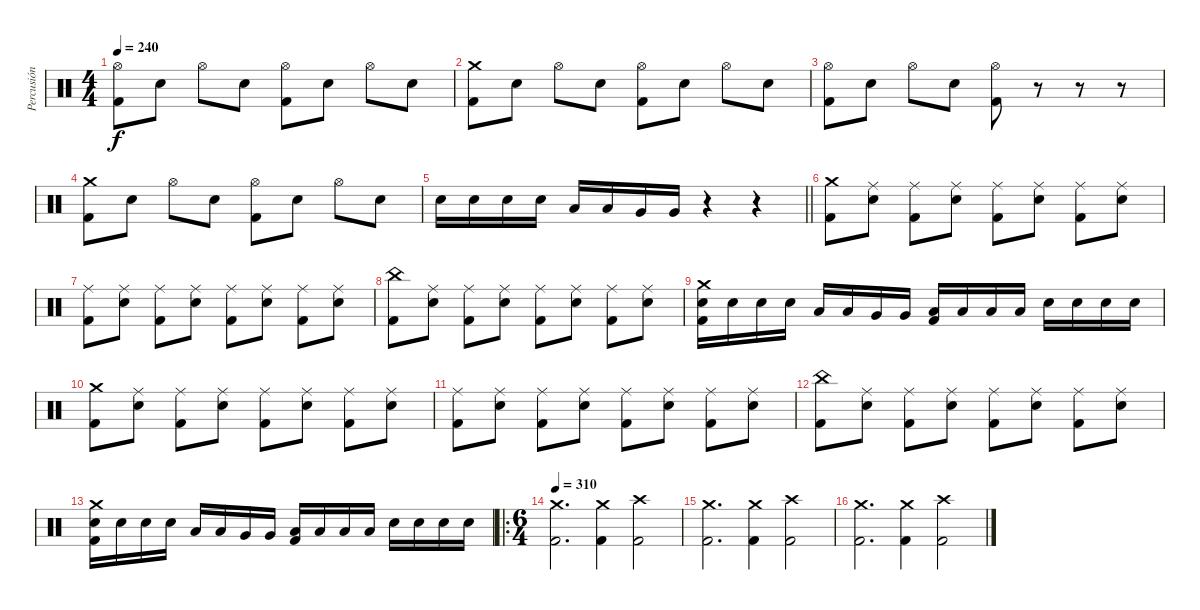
\track ("Percusión" "Percusión") {instrument percussion}
\staff {score}
\articulation defaults
\ts (4 4)
\tempo 240
\clef neutral
\ks c
("Hi-Hat (open)" "Kick (hit) 2").8{dy f} "Electric Snare (hit)".8 "Hi-Hat (open)".8 "Electric Snare (hit)".8 ("Hi-Hat (open)" "Kick (hit) 2").8 "Electric Snare (hit)".8 "Hi-Hat (open)".8 "Electric Snare (hit)".8 |
("Crash medium (hit)" "Kick (hit) 2").8 "Electric Snare (hit)".8 "Hi-Hat (open)".8 "Electric Snare (hit)".8 ("Hi-Hat (open)" "Kick (hit) 2").8 "Electric Snare (hit)".8 "Hi-Hat (open)".8 "Electric Snare (hit)".8 |
("Hi-Hat (open)" "Kick (hit) 2").8 "Electric Snare (hit)".8 "Hi-Hat (open)".8 "Electric Snare (hit)".8 ("Hi-Hat (open)" "Kick (hit) 2").8 r.8 r.8 r.8 |
("Crash medium (hit)" "Kick (hit) 2").8 "Electric Snare (hit)".8 "Hi-Hat (open)".8 "Electric Snare (hit)".8 ("Hi-Hat (open)" "Kick (hit) 2").8 "Electric Snare (hit)".8 "Hi-Hat (open)".8 "Electric Snare (hit)".8 |
\barLineRight lightlight "Electric Snare (hit)".16 "Electric Snare (hit)".16 "Electric Snare (hit)".16 "Electric Snare (hit)".16 "Low Tom (hit)".16 "Low Tom (hit)".16 "Very Low Tom (hit)".16 "Very Low Tom (hit)".16
r.4 r.4 |
("Crash medium (hit)" "Kick (hit) 2").8 ("Ride (middle)" "Electric Snare (hit)").8 ("Ride (middle)" "Kick (hit) 2").8 ("Ride (middle)" "Electric Snare (hit)").8 ("Ride (middle)" "Kick (hit) 2").8 ("Ride (middle)" "Electric Snare (hit)").8 ("Ride (middle)" "Kick (hit) 2").8 ("Ride (middle)" "Electric Snare (hit)").8 |
("Ride (middle)" "Kick (hit) 2").8 ("Ride (middle)" "Electric Snare (hit)").8 ("Ride (middle)" "Kick (hit) 2").8 ("Ride (middle)" "Electric Snare (hit)").8 ("Ride (middle)" "Kick (hit) 2").8 ("Ride (middle)" "Electric Snare (hit)").8 ("Ride (middle)" "Kick (hit) 2").8 ("Ride (middle)" "Electric Snare (hit)").8 |
("China (hit)" "Kick (hit) 2").8 ("Ride (middle)" "Electric Snare (hit)").8 ("Ride (middle)" "Kick (hit) 2").8 ("Ride (middle)" "Electric Snare (hit)").8 ("Ride (middle)" "Kick (hit) 2").8 ("Ride (middle)" "Electric Snare (hit)").8 ("Ride (middle)" "Kick (hit) 2").8 ("Ride (middle)" "Electric Snare (hit)").8 |
("Crash medium (hit)" "Electric Snare (hit)" "Kick (hit) 2").16 "Electric Snare (hit)".16 "Electric Snare (hit)".16 "Electric Snare (hit)".16 "Low Tom (hit)".16 "Low Tom (hit)".16 "Very Low Tom (hit)".16 "Very Low Tom (hit)".16 ("Low Tom (hit)" "Kick (hit) 2").16 "Low Tom (hit)".16 "Low Tom (hit)".16 "Low Tom (hit)".16 "Electric Snare (hit)".16 "Electric Snare (hit)".16 "Electric Snare (hit)".16 "Electric Snare (hit)".16 |
("Crash medium (hit)" "Kick (hit) 2").8 ("Ride (middle)" "Electric Snare (hit)").8 ("Ride (middle)" "Kick (hit) 2").8 ("Ride (middle)" "Electric Snare (hit)").8 ("Ride (middle)" "Kick (hit) 2").8 ("Ride (middle)" "Electric Snare (hit)").8 ("Ride (middle)" "Kick (hit) 2").8 ("Ride (middle)" "Electric Snare (hit)").8 |
("Ride (middle)" "Kick (hit) 2").8 ("Ride (middle)" "Electric Snare (hit)").8 ("Ride (middle)" "Kick (hit) 2").8 ("Ride (middle)" "Electric Snare (hit)").8 ("Ride (middle)" "Kick (hit) 2").8 ("Ride (middle)" "Electric Snare (hit)").8 ("Ride (middle)" "Kick (hit) 2").8 ("Ride (middle)" "Electric Snare (hit)").8 |
("China (hit)" "Kick (hit) 2").8 ("Ride (middle)" "Electric Snare (hit)").8 ("Ride (middle)" "Kick (hit) 2").8 ("Ride (middle)" "Electric Snare (hit)").8 ("Ride (middle)" "Kick (hit) 2").8 ("Ride (middle)" "Electric Snare (hit)").8 ("Ride (middle)" "Kick (hit) 2").8 ("Ride (middle)" "Electric Snare (hit)").8 |
("Crash medium (hit)" "Electric Snare (hit)" "Kick (hit) 2").16 "Electric Snare (hit)".16 "Electric Snare (hit)".16 "Electric Snare (hit)".16 "Low Tom (hit)".16 "Low Tom (hit)".16 "Very Low Tom (hit)".16 "Very Low Tom (hit)".16 ("Low Tom (hit)" "Kick (hit) 2").16 "Low Tom (hit)".16 "Low Tom (hit)".16 "Low Tom (hit)".16 "Electric Snare (hit)".16 "Electric Snare (hit)".16 "Electric Snare (hit)".16 "Electric Snare (hit)".16 |
\ro
\ts (6 4)
\tempo 310
("Crash medium (hit)" "Kick (hit) 2").2{d} ("Crash medium (hit)" "Kick (hit) 2").4 ("Crash high (hit)" "Kick (hit) 2").2 |
("Crash medium (hit)" "Kick (hit) 2").2{d} ("Crash medium (hit)" "Kick (hit) 2").4 ("Crash high (hit)" "Kick (hit) 2").2 |
("Crash medium (hit)" "Kick (hit) 2").2{d} ("Crash medium (hit)" "Kick (hit) 2").4 ("Crash high (hit)" "Kick (hit) 2").2
